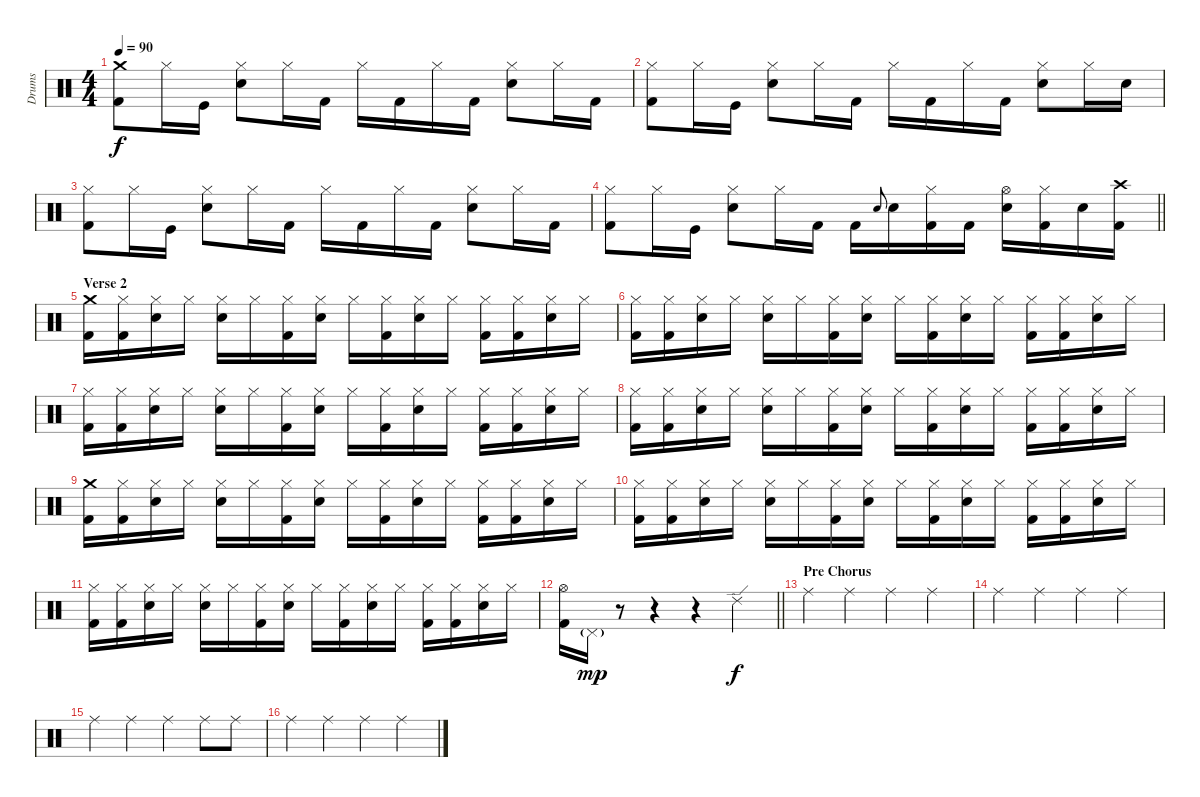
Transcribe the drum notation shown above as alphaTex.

\track ("Drums" "Drums") {instrument percussion}
\staff {score}
\articulation defaults
\ts (4 4)
\tempo 90
\clef neutral
\ks c
("Crash medium (hit)" "Kick (hit) 2").8{dy f} "Hi-Hat (closed)".16 "Kick (hit)".16 ("Hi-Hat (closed)" "Snare (hit) 2").8 "Hi-Hat (closed)".16 "Kick (hit) 2".16 "Hi-Hat (closed)".16 "Kick (hit) 2".16 "Hi-Hat (closed)".16 "Kick (hit) 2".16 ("Hi-Hat (closed)" "Snare (hit) 2").8 "Hi-Hat (closed)".16 "Kick (hit) 2".16 |
("Hi-Hat (closed)" "Kick (hit) 2").8 "Hi-Hat (closed)".16 "Kick (hit)".16 ("Hi-Hat (closed)" "Snare (hit) 2").8 "Hi-Hat (closed)".16 "Kick (hit) 2".16 "Hi-Hat (closed)".16 "Kick (hit) 2".16 "Hi-Hat (closed)".16 "Kick (hit) 2".16 ("Hi-Hat (closed)" "Snare (hit) 2").8 "Hi-Hat (closed)".16 "Snare (hit) 2".16 |
("Hi-Hat (closed)" "Kick (hit) 2").8 "Hi-Hat (closed)".16 "Kick (hit)".16 ("Hi-Hat (closed)" "Snare (hit) 2").8 "Hi-Hat (closed)".16 "Kick (hit) 2".16 "Hi-Hat (closed)".16 "Kick (hit) 2".16 "Hi-Hat (closed)".16 "Kick (hit) 2".16 ("Hi-Hat (closed)" "Snare (hit) 2").8 "Hi-Hat (closed)".16 "Kick (hit) 2".16 |
\barLineRight lightlight
("Hi-Hat (closed)" "Kick (hit) 2").8 "Hi-Hat (closed)".16 "Kick (hit)".16 ("Hi-Hat (closed)" "Snare (hit) 2").8 "Hi-Hat (closed)".16 "Kick (hit) 2".16 "Kick (hit) 2".16 "Snare (hit) 2"{h}.8{gr onbeat} "Snare (hit) 2".16 ("Hi-Hat (closed)" "Kick (hit) 2").16 "Kick (hit) 2".16 ("Hi-Hat (open)" "Snare (hit) 2").16 ("Hi-Hat (closed)" "Kick (hit) 2").16 "Snare (hit) 2".16 ("Crash high (hit)" "Kick (hit) 2").16 |
\section ("" "Verse 2")
("Crash medium (hit)" "Kick (hit) 2").16 ("Hi-Hat (closed)" "Kick (hit) 2").16 ("Hi-Hat (closed)" "Snare (hit) 2").16 "Hi-Hat (closed)".16 ("Hi-Hat (closed)" "Snare (hit) 2").16 "Hi-Hat (closed)".16 ("Hi-Hat (closed)" "Kick (hit) 2").16 ("Hi-Hat (closed)" "Snare (hit) 2").16 "Hi-Hat (closed)".16 ("Hi-Hat (closed)" "Kick (hit) 2").16 ("Hi-Hat (closed)" "Snare (hit) 2").16 "Hi-Hat (closed)".16 ("Hi-Hat (closed)" "Kick (hit) 2").16 ("Hi-Hat (closed)" "Kick (hit) 2").16 ("Hi-Hat (closed)" "Snare (hit) 2").16 "Hi-Hat (closed)".16 |
("Hi-Hat (closed)" "Kick (hit) 2").16 ("Hi-Hat (closed)" "Kick (hit) 2").16 ("Hi-Hat (closed)" "Snare (hit) 2").16 "Hi-Hat (closed)".16 ("Hi-Hat (closed)" "Snare (hit) 2").16 "Hi-Hat (closed)".16 ("Hi-Hat (closed)" "Kick (hit) 2").16 ("Hi-Hat (closed)" "Snare (hit) 2").16 "Hi-Hat (closed)".16 ("Hi-Hat (closed)" "Kick (hit) 2").16 ("Hi-Hat (closed)" "Snare (hit) 2").16 "Hi-Hat (closed)".16 ("Hi-Hat (closed)" "Kick (hit) 2").16 ("Hi-Hat (closed)" "Kick (hit) 2").16 ("Hi-Hat (closed)" "Snare (hit) 2").16 "Hi-Hat (closed)".16 |
("Hi-Hat (closed)" "Kick (hit) 2").16 ("Hi-Hat (closed)" "Kick (hit) 2").16 ("Hi-Hat (closed)" "Snare (hit) 2").16 "Hi-Hat (closed)".16 ("Hi-Hat (closed)" "Snare (hit) 2").16 "Hi-Hat (closed)".16 ("Hi-Hat (closed)" "Kick (hit) 2").16 ("Hi-Hat (closed)" "Snare (hit) 2").16 "Hi-Hat (closed)".16 ("Hi-Hat (closed)" "Kick (hit) 2").16 ("Hi-Hat (closed)" "Snare (hit) 2").16 "Hi-Hat (closed)".16 ("Hi-Hat (closed)" "Kick (hit) 2").16 ("Hi-Hat (closed)" "Kick (hit) 2").16 ("Hi-Hat (closed)" "Snare (hit) 2").16 "Hi-Hat (closed)".16 |
("Hi-Hat (closed)" "Kick (hit) 2").16 ("Hi-Hat (closed)" "Kick (hit) 2").16 ("Hi-Hat (closed)" "Snare (hit) 2").16 "Hi-Hat (closed)".16 ("Hi-Hat (closed)" "Snare (hit) 2").16 "Hi-Hat (closed)".16 ("Hi-Hat (closed)" "Kick (hit) 2").16 ("Hi-Hat (closed)" "Snare (hit) 2").16 "Hi-Hat (closed)".16 ("Hi-Hat (closed)" "Kick (hit) 2").16 ("Hi-Hat (closed)" "Snare (hit) 2").16 "Hi-Hat (closed)".16 ("Hi-Hat (closed)" "Kick (hit) 2").16 ("Hi-Hat (closed)" "Kick (hit) 2").16 ("Hi-Hat (closed)" "Snare (hit) 2").16 "Hi-Hat (closed)".16 |
("Crash medium (hit)" "Kick (hit) 2").16 ("Hi-Hat (closed)" "Kick (hit) 2").16 ("Hi-Hat (closed)" "Snare (hit) 2").16 "Hi-Hat (closed)".16 ("Hi-Hat (closed)" "Snare (hit) 2").16 "Hi-Hat (closed)".16 ("Hi-Hat (closed)" "Kick (hit) 2").16 ("Hi-Hat (closed)" "Snare (hit) 2").16 "Hi-Hat (closed)".16 ("Hi-Hat (closed)" "Kick (hit) 2").16 ("Hi-Hat (closed)" "Snare (hit) 2").16 "Hi-Hat (closed)".16 ("Hi-Hat (closed)" "Kick (hit) 2").16 ("Hi-Hat (closed)" "Kick (hit) 2").16 ("Hi-Hat (closed)" "Snare (hit) 2").16 "Hi-Hat (closed)".16 |
("Hi-Hat (closed)" "Kick (hit) 2").16 ("Hi-Hat (closed)" "Kick (hit) 2").16 ("Hi-Hat (closed)" "Snare (hit) 2").16 "Hi-Hat (closed)".16 ("Hi-Hat (closed)" "Snare (hit) 2").16 "Hi-Hat (closed)".16 ("Hi-Hat (closed)" "Kick (hit) 2").16 ("Hi-Hat (closed)" "Snare (hit) 2").16 "Hi-Hat (closed)".16 ("Hi-Hat (closed)" "Kick (hit) 2").16 ("Hi-Hat (closed)" "Snare (hit) 2").16 "Hi-Hat (closed)".16 ("Hi-Hat (closed)" "Kick (hit) 2").16 ("Hi-Hat (closed)" "Kick (hit) 2").16 ("Hi-Hat (closed)" "Snare (hit) 2").16 "Hi-Hat (closed)".16 |
("Hi-Hat (closed)" "Kick (hit) 2").16 ("Hi-Hat (closed)" "Kick (hit) 2").16 ("Hi-Hat (closed)" "Snare (hit) 2").16 "Hi-Hat (closed)".16 ("Hi-Hat (closed)" "Snare (hit) 2").16 "Hi-Hat (closed)".16 ("Hi-Hat (closed)" "Kick (hit) 2").16 ("Hi-Hat (closed)" "Snare (hit) 2").16 "Hi-Hat (closed)".16 ("Hi-Hat (closed)" "Kick (hit) 2").16 ("Hi-Hat (closed)" "Snare (hit) 2").16 "Hi-Hat (closed)".16 ("Hi-Hat (closed)" "Kick (hit) 2").16 ("Hi-Hat (closed)" "Kick (hit) 2").16 ("Hi-Hat (closed)" "Snare (hit) 2").16 "Hi-Hat (closed)".16 |
\barLineRight lightlight
("Hi-Hat (open)" "Kick (hit) 2").16 "Pedal Hi-Hat (hit)"{g}.16{dy mp} r.8 r.4 r.4 "Ride (edge) 2".4{dy f} |
\section ("" "Pre Chorus")
"Ride (middle)".4 "Ride (middle)".4 "Ride (middle)".4 "Ride (middle)".4 |
"Ride (middle)".4 "Ride (middle)".4 "Ride (middle)".4 "Ride (middle)".4 |
"Ride (middle)".4 "Ride (middle)".4 "Ride (middle)".4 "Ride (middle)".8 "Ride (middle)".8 |
"Ride (middle)".4 "Ride (middle)".4 "Ride (middle)".4 "Ride (middle)".4
